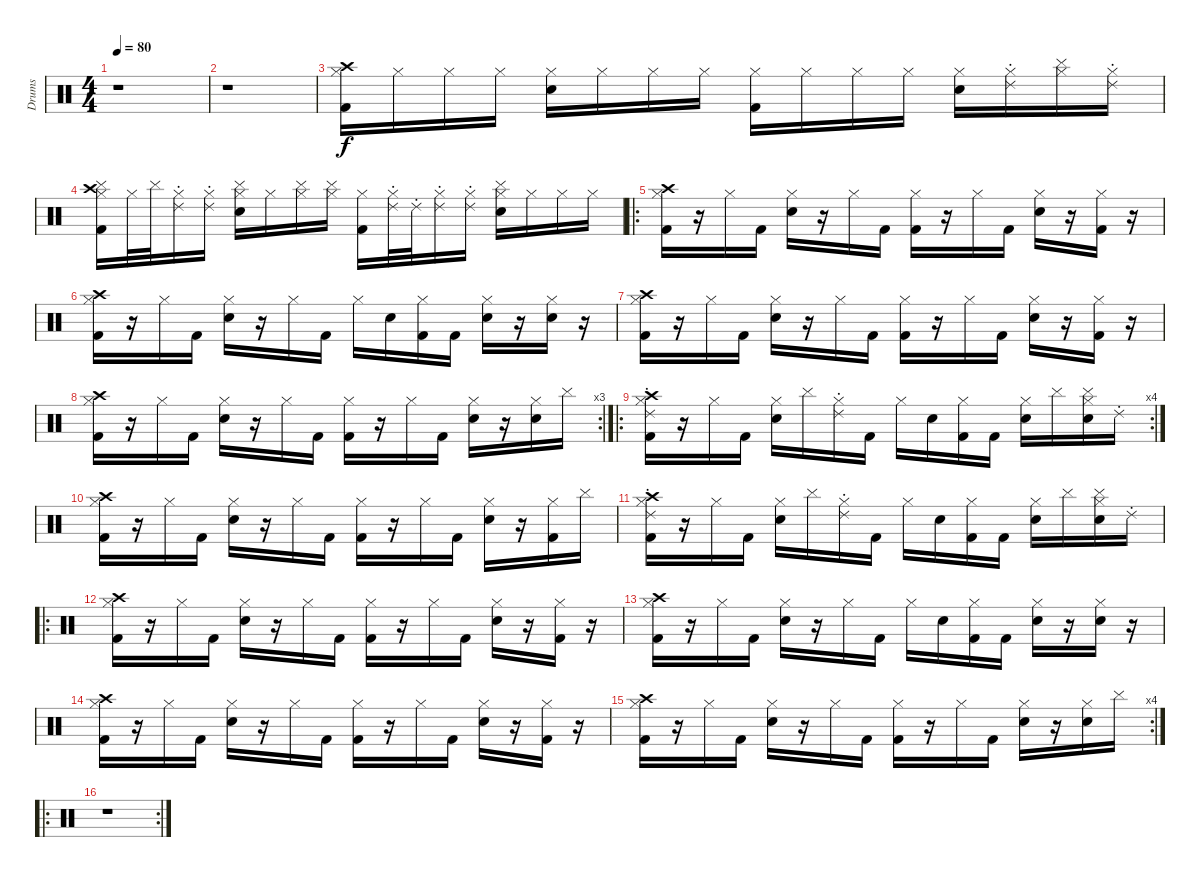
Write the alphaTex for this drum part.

\track ("Drums" "Drums") {instrument percussion}
\staff {score}
\articulation defaults
\ts (4 4)
\tempo 80
\clef neutral
\ks c
r.1{dy f} |
r.1 |
("Hi-Hat (closed)" "Kick (hit) 2" "Crash high (hit)").16 "Hi-Hat (closed)".16 "Hi-Hat (closed)".16 "Hi-Hat (closed)".16 ("Hi-Hat (closed)" "Snare (hit) 2").16 "Hi-Hat (closed)".16 "Hi-Hat (closed)".16 "Hi-Hat (closed)".16 ("Hi-Hat (closed)" "Kick (hit) 2").16 "Hi-Hat (closed)".16 "Hi-Hat (closed)".16 "Hi-Hat (closed)".16 ("Hi-Hat (closed)" "Snare (hit) 2").16 ("Hi-Hat (closed)" "Ride (choke) 2").16 ("Hi-Hat (closed)" "Cymbal (hit)").16 ("Hi-Hat (closed)" "Ride (choke) 2").16 |
("Hi-Hat (closed)" "Kick (hit) 2" "Crash high (hit)" "Cymbal (hit)").16 "Hi-Hat (closed)".32 "Cymbal (hit)".32 ("Hi-Hat (closed)" "Ride (choke) 2").16 ("Hi-Hat (closed)" "Ride (choke) 2").16 ("Hi-Hat (closed)" "Snare (hit) 2" "Cymbal (hit)").16 "Hi-Hat (closed)".16 ("Hi-Hat (closed)" "Cymbal (hit)").16 ("Hi-Hat (closed)" "Cymbal (hit)").16 ("Hi-Hat (closed)" "Kick (hit) 2").16 ("Hi-Hat (closed)" "Ride (choke) 2").32 "Ride (choke) 2".32 ("Hi-Hat (closed)" "Ride (choke) 2").16 ("Hi-Hat (closed)" "Ride (choke) 2").16 ("Hi-Hat (closed)" "Snare (hit) 2" "Cymbal (hit)").16 "Hi-Hat (closed)".16 "Hi-Hat (closed)".16 "Hi-Hat (closed)".16 |
\ro
("Hi-Hat (closed)" "Crash high (hit)" "Kick (hit) 2").16 r.16 "Hi-Hat (closed)".16 "Kick (hit) 2".16 ("Hi-Hat (closed)" "Snare (hit) 2").16 r.16 "Hi-Hat (closed)".16 "Kick (hit) 2".16 ("Hi-Hat (closed)" "Kick (hit) 2").16 r.16 "Hi-Hat (closed)".16 "Kick (hit) 2".16 ("Hi-Hat (closed)" "Snare (hit) 2").16 r.16 ("Hi-Hat (closed)" "Kick (hit) 2").16 r.16 |
("Hi-Hat (closed)" "Crash high (hit)" "Kick (hit) 2").16 r.16 "Hi-Hat (closed)".16 "Kick (hit) 2".16 ("Hi-Hat (closed)" "Snare (hit) 2").16 r.16 "Hi-Hat (closed)".16 "Kick (hit) 2".16 "Hi-Hat (closed)".16 "Snare (hit) 2".16 ("Hi-Hat (closed)" "Kick (hit) 2").16 "Kick (hit) 2".16 ("Hi-Hat (closed)" "Snare (hit) 2").16 r.16 ("Hi-Hat (closed)" "Snare (hit) 2").16 r.16 |
("Hi-Hat (closed)" "Crash high (hit)" "Kick (hit) 2").16 r.16 "Hi-Hat (closed)".16 "Kick (hit) 2".16 ("Hi-Hat (closed)" "Snare (hit) 2").16 r.16 "Hi-Hat (closed)".16 "Kick (hit) 2".16 ("Hi-Hat (closed)" "Kick (hit) 2").16 r.16 "Hi-Hat (closed)".16 "Kick (hit) 2".16 ("Hi-Hat (closed)" "Snare (hit) 2").16 r.16 ("Hi-Hat (closed)" "Kick (hit) 2").16 r.16 |
\rc 3
("Hi-Hat (closed)" "Crash high (hit)" "Kick (hit) 2").16 r.16 "Hi-Hat (closed)".16 "Kick (hit) 2".16 ("Hi-Hat (closed)" "Snare (hit) 2").16 r.16 "Hi-Hat (closed)".16 "Kick (hit) 2".16 ("Hi-Hat (closed)" "Kick (hit) 2").16 r.16 "Hi-Hat (closed)".16 "Kick (hit) 2".16 ("Hi-Hat (closed)" "Snare (hit) 2").16 r.16 ("Hi-Hat (closed)" "Snare (hit) 2").16 "Cymbal (hit)".16 |
\ro
\rc 4
("Hi-Hat (closed)" "Crash high (hit)" "Kick (hit) 2" "Ride (choke) 2").16 r.16 "Hi-Hat (closed)".16 "Kick (hit) 2".16 ("Hi-Hat (closed)" "Snare (hit) 2").16 "Cymbal (hit)".16 ("Hi-Hat (closed)" "Ride (choke) 2").16 "Kick (hit) 2".16 "Hi-Hat (closed)".16 "Snare (hit) 2".16 ("Hi-Hat (closed)" "Kick (hit) 2").16 "Kick (hit) 2".16 ("Hi-Hat (closed)" "Snare (hit) 2").16 "Cymbal (hit)".16 ("Hi-Hat (closed)" "Snare (hit) 2" "Cymbal (hit)").16 "Ride (choke) 2".16 |
("Hi-Hat (closed)" "Crash high (hit)" "Kick (hit) 2").16 r.16 "Hi-Hat (closed)".16 "Kick (hit) 2".16 ("Hi-Hat (closed)" "Snare (hit) 2").16 r.16 "Hi-Hat (closed)".16 "Kick (hit) 2".16 ("Hi-Hat (closed)" "Kick (hit) 2").16 r.16 "Hi-Hat (closed)".16 "Kick (hit) 2".16 ("Hi-Hat (closed)" "Snare (hit) 2").16 r.16 ("Hi-Hat (closed)" "Kick (hit) 2").16 "Cymbal (hit)".16 |
("Hi-Hat (closed)" "Crash high (hit)" "Kick (hit) 2" "Ride (choke) 2").16 r.16 "Hi-Hat (closed)".16 "Kick (hit) 2".16 ("Hi-Hat (closed)" "Snare (hit) 2").16 "Cymbal (hit)".16 ("Hi-Hat (closed)" "Ride (choke) 2").16 "Kick (hit) 2".16 "Hi-Hat (closed)".16 "Snare (hit) 2".16 ("Hi-Hat (closed)" "Kick (hit) 2").16 "Kick (hit) 2".16 ("Hi-Hat (closed)" "Snare (hit) 2").16 "Cymbal (hit)".16 ("Hi-Hat (closed)" "Snare (hit) 2" "Cymbal (hit)").16 "Ride (choke) 2".16 |
\ro
("Hi-Hat (closed)" "Crash high (hit)" "Kick (hit) 2").16 r.16 "Hi-Hat (closed)".16 "Kick (hit) 2".16 ("Hi-Hat (closed)" "Snare (hit) 2").16 r.16 "Hi-Hat (closed)".16 "Kick (hit) 2".16 ("Hi-Hat (closed)" "Kick (hit) 2").16 r.16 "Hi-Hat (closed)".16 "Kick (hit) 2".16 ("Hi-Hat (closed)" "Snare (hit) 2").16 r.16 ("Hi-Hat (closed)" "Kick (hit) 2").16 r.16 |
("Hi-Hat (closed)" "Crash high (hit)" "Kick (hit) 2").16 r.16 "Hi-Hat (closed)".16 "Kick (hit) 2".16 ("Hi-Hat (closed)" "Snare (hit) 2").16 r.16 "Hi-Hat (closed)".16 "Kick (hit) 2".16 "Hi-Hat (closed)".16 "Snare (hit) 2".16 ("Hi-Hat (closed)" "Kick (hit) 2").16 "Kick (hit) 2".16 ("Hi-Hat (closed)" "Snare (hit) 2").16 r.16 ("Hi-Hat (closed)" "Snare (hit) 2").16 r.16 |
("Hi-Hat (closed)" "Crash high (hit)" "Kick (hit) 2").16 r.16 "Hi-Hat (closed)".16 "Kick (hit) 2".16 ("Hi-Hat (closed)" "Snare (hit) 2").16 r.16 "Hi-Hat (closed)".16 "Kick (hit) 2".16 ("Hi-Hat (closed)" "Kick (hit) 2").16 r.16 "Hi-Hat (closed)".16 "Kick (hit) 2".16 ("Hi-Hat (closed)" "Snare (hit) 2").16 r.16 ("Hi-Hat (closed)" "Kick (hit) 2").16 r.16 |
\rc 4
("Hi-Hat (closed)" "Crash high (hit)" "Kick (hit) 2").16 r.16 "Hi-Hat (closed)".16 "Kick (hit) 2".16 ("Hi-Hat (closed)" "Snare (hit) 2").16 r.16 "Hi-Hat (closed)".16 "Kick (hit) 2".16 ("Hi-Hat (closed)" "Kick (hit) 2").16 r.16 "Hi-Hat (closed)".16 "Kick (hit) 2".16 ("Hi-Hat (closed)" "Snare (hit) 2").16 r.16 ("Hi-Hat (closed)" "Snare (hit) 2").16 "Cymbal (hit)".16 |
\ro
\rc 2
r.1
